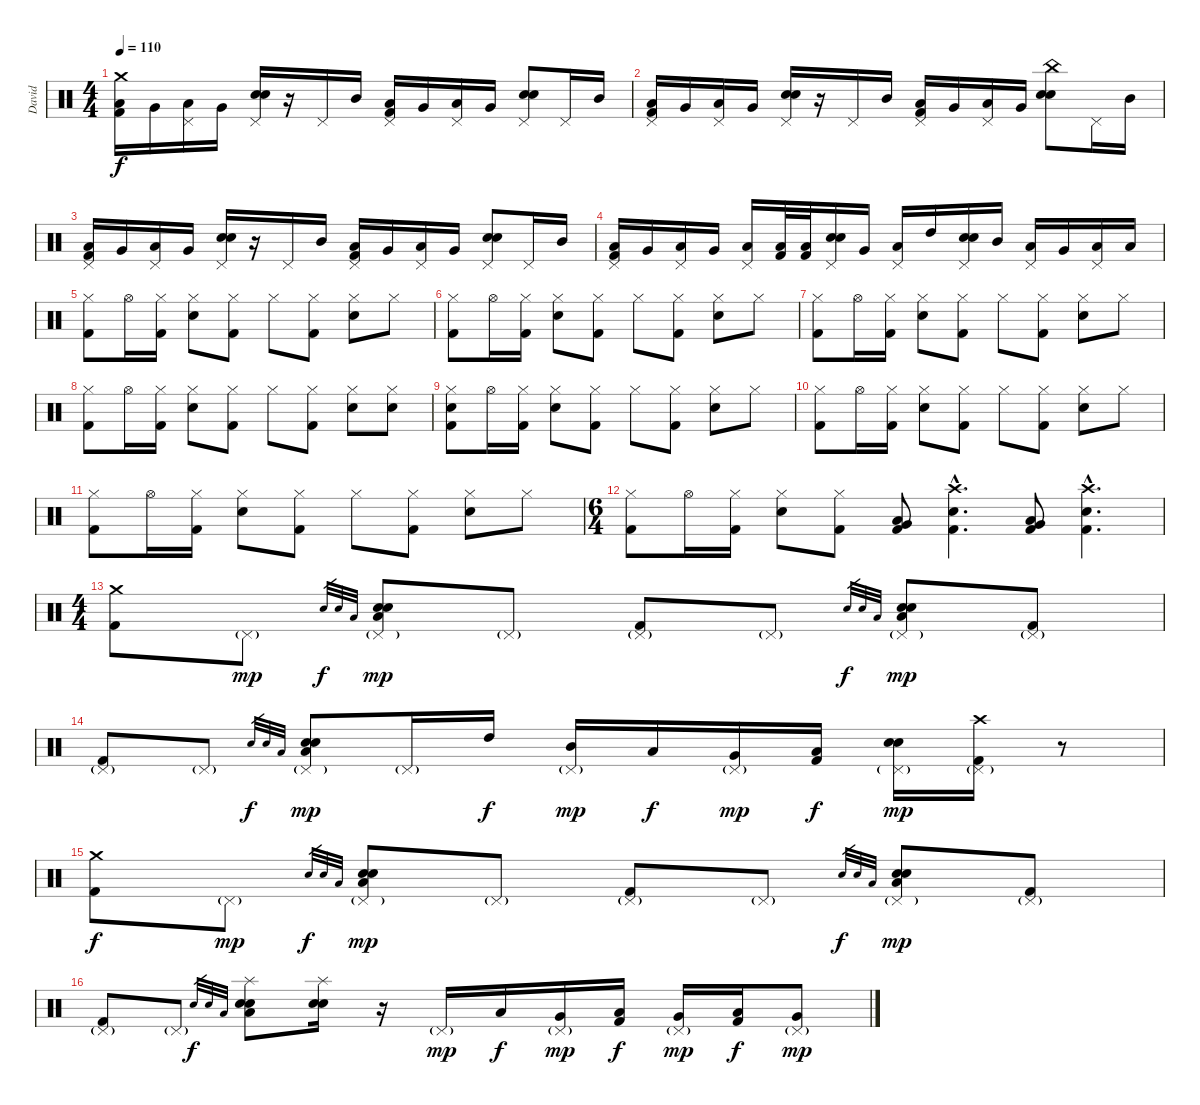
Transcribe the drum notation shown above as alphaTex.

\track ("David" "David") {instrument percussion}
\staff {score}
\articulation defaults
\ts (4 4)
\tempo 110
\clef neutral
\ks c
("Crash medium (hit)" "Low Tom (hit)" "Kick (hit) 2").16{dy f} "Very Low Tom (hit)".16 ("Pedal Hi-Hat (hit)" "Low Floor Tom (hit)").16 "Very Low Tom (hit)".16 ("Pedal Hi-Hat (hit)" "Snare (hit) 2" "Snare (hit) 2").16 r.16 "Pedal Hi-Hat (hit)".16 "Mid Tom (hit)".16 ("Pedal Hi-Hat (hit)" "Low Tom (hit)" "Kick (hit) 2").16 "Very Low Tom (hit)".16 ("Pedal Hi-Hat (hit)" "Low Floor Tom (hit)").16 "Very Low Tom (hit)".16 ("Pedal Hi-Hat (hit)" "Snare (hit) 2" "Snare (hit) 2").8 "Pedal Hi-Hat (hit)".16 "Mid Tom (hit)".16 |
("Pedal Hi-Hat (hit)" "Low Tom (hit)" "Kick (hit) 2").16 "Very Low Tom (hit)".16 ("Pedal Hi-Hat (hit)" "Low Floor Tom (hit)").16 "Very Low Tom (hit)".16 ("Pedal Hi-Hat (hit)" "Snare (hit) 2" "Snare (hit) 2").16 r.16 "Pedal Hi-Hat (hit)".16 "Mid Tom (hit)".16 ("Pedal Hi-Hat (hit)" "Low Tom (hit)" "Kick (hit) 2").16 "Very Low Tom (hit)".16 ("Pedal Hi-Hat (hit)" "Low Floor Tom (hit)").16 "Very Low Tom (hit)".16 ("China (hit)" "Snare (hit) 2" "Snare (hit) 2").8 "Pedal Hi-Hat (hit)".16 "Mid Tom (hit)".16 |
("Pedal Hi-Hat (hit)" "Low Tom (hit)" "Kick (hit) 2").16 "Very Low Tom (hit)".16 ("Pedal Hi-Hat (hit)" "Low Floor Tom (hit)").16 "Very Low Tom (hit)".16 ("Pedal Hi-Hat (hit)" "Snare (hit) 2" "Snare (hit) 2").16 r.16 "Pedal Hi-Hat (hit)".16 "Mid Tom (hit)".16 ("Pedal Hi-Hat (hit)" "Low Tom (hit)" "Kick (hit) 2").16 "Very Low Tom (hit)".16 ("Pedal Hi-Hat (hit)" "Low Floor Tom (hit)").16 "Very Low Tom (hit)".16 ("Pedal Hi-Hat (hit)" "Snare (hit) 2" "Snare (hit) 2").8 "Pedal Hi-Hat (hit)".16 "Mid Tom (hit)".16 |
("Pedal Hi-Hat (hit)" "Low Tom (hit)" "Kick (hit) 2").16 "Very Low Tom (hit)".16 ("Pedal Hi-Hat (hit)" "Low Floor Tom (hit)").16 "Very Low Tom (hit)".16 ("Pedal Hi-Hat (hit)" "Low Floor Tom (hit)").16 ("Low Tom (hit)" "Kick (hit) 2").32 ("Low Tom (hit)" "Kick (hit) 2").32 ("Pedal Hi-Hat (hit)" "Snare (hit) 2" "Snare (hit) 2").16 "Very Low Tom (hit)".16 ("Pedal Hi-Hat (hit)" "Low Tom (hit)").16 "High Tom (hit)".16 ("Pedal Hi-Hat (hit)" "Snare (hit) 2" "Snare (hit) 2").16 "Mid Tom (hit)".16 ("Pedal Hi-Hat (hit)" "Low Tom (hit)").16 "Very Low Tom (hit)".16 ("Pedal Hi-Hat (hit)" "Low Floor Tom (hit)").16 "Low Floor Tom (hit)".16 |
("Hi-Hat (closed)" "Kick (hit) 2").8 "Hi-Hat (open)".16 ("Hi-Hat (closed)" "Kick (hit) 2").16 ("Hi-Hat (closed)" "Snare (hit) 2").8 ("Hi-Hat (closed)" "Kick (hit) 2").8 "Hi-Hat (closed)".8 ("Hi-Hat (closed)" "Kick (hit) 2").8 ("Hi-Hat (closed)" "Snare (hit) 2").8 "Hi-Hat (closed)".8 |
("Hi-Hat (closed)" "Kick (hit) 2").8 "Hi-Hat (open)".16 ("Hi-Hat (closed)" "Kick (hit) 2").16 ("Hi-Hat (closed)" "Snare (hit) 2").8 ("Hi-Hat (closed)" "Kick (hit) 2").8 "Hi-Hat (closed)".8 ("Hi-Hat (closed)" "Kick (hit) 2").8 ("Hi-Hat (closed)" "Snare (hit) 2").8 "Hi-Hat (closed)".8 |
("Hi-Hat (closed)" "Kick (hit) 2").8 "Hi-Hat (open)".16 ("Hi-Hat (closed)" "Kick (hit) 2").16 ("Hi-Hat (closed)" "Snare (hit) 2").8 ("Hi-Hat (closed)" "Kick (hit) 2").8 "Hi-Hat (closed)".8 ("Hi-Hat (closed)" "Kick (hit) 2").8 ("Hi-Hat (closed)" "Snare (hit) 2").8 "Hi-Hat (closed)".8 |
("Hi-Hat (closed)" "Kick (hit) 2").8 "Hi-Hat (open)".16 ("Hi-Hat (closed)" "Kick (hit) 2").16 ("Hi-Hat (closed)" "Snare (hit) 2").8 ("Hi-Hat (closed)" "Kick (hit) 2").8 "Hi-Hat (closed)".8 ("Hi-Hat (closed)" "Kick (hit) 2").8 ("Hi-Hat (closed)" "Snare (hit) 2").8 ("Hi-Hat (closed)" "Snare (hit) 2").8 |
("Hi-Hat (closed)" "Snare (hit) 2" "Kick (hit) 2").8 "Hi-Hat (open)".16 ("Hi-Hat (closed)" "Kick (hit) 2").16 ("Hi-Hat (closed)" "Snare (hit) 2").8 ("Hi-Hat (closed)" "Kick (hit) 2").8 "Hi-Hat (closed)".8 ("Hi-Hat (closed)" "Kick (hit) 2").8 ("Hi-Hat (closed)" "Snare (hit) 2").8 "Hi-Hat (closed)".8 |
("Hi-Hat (closed)" "Kick (hit) 2").8 "Hi-Hat (open)".16 ("Hi-Hat (closed)" "Kick (hit) 2").16 ("Hi-Hat (closed)" "Snare (hit) 2").8 ("Hi-Hat (closed)" "Kick (hit) 2").8 "Hi-Hat (closed)".8 ("Hi-Hat (closed)" "Kick (hit) 2").8 ("Hi-Hat (closed)" "Snare (hit) 2").8 "Hi-Hat (closed)".8 |
("Hi-Hat (closed)" "Kick (hit) 2").8 "Hi-Hat (open)".16 ("Hi-Hat (closed)" "Kick (hit) 2").16 ("Hi-Hat (closed)" "Snare (hit) 2").8 ("Hi-Hat (closed)" "Kick (hit) 2").8 "Hi-Hat (closed)".8 ("Hi-Hat (closed)" "Kick (hit) 2").8 ("Hi-Hat (closed)" "Snare (hit) 2").8 "Hi-Hat (closed)".8 |
\ts (6 4)
("Hi-Hat (closed)" "Kick (hit) 2").8 "Hi-Hat (open)".16 ("Hi-Hat (closed)" "Kick (hit) 2").16 ("Hi-Hat (closed)" "Snare (hit) 2").8 ("Hi-Hat (closed)" "Kick (hit) 2").8 ("Low Tom (hit)" "Very Low Tom (hit)" "Kick (hit) 2").8 ("Crash high (hit)"{hac} "Snare (hit) 2"{hac} "Kick (hit) 2"{hac}).4{d} ("Low Tom (hit)" "Very Low Tom (hit)" "Kick (hit) 2").8 ("Crash high (hit)"{hac} "Snare (hit) 2"{hac} "Kick (hit) 2"{hac}).4{d} |
\ts (4 4)
("Crash medium (hit)" "Kick (hit) 2").8 "Pedal Hi-Hat (hit)"{g}.8{dy mp} "Snare (hit) 2".32{gr dy f} "Snare (hit) 2".32{gr} "Low Floor Tom (hit)".32{gr} ("Pedal Hi-Hat (hit)"{g} "Snare (hit) 2" "Snare (hit) 2" "Low Floor Tom (hit)").8{dy mp} "Pedal Hi-Hat (hit)"{g}.8 ("Pedal Hi-Hat (hit)"{g} "Kick (hit) 2").8 "Pedal Hi-Hat (hit)"{g}.8 "Snare (hit) 2".32{gr dy f} "Snare (hit) 2".32{gr} "Low Floor Tom (hit)".32{gr} ("Pedal Hi-Hat (hit)"{g} "Snare (hit) 2" "Snare (hit) 2" "Low Floor Tom (hit)").8{dy mp} ("Pedal Hi-Hat (hit)"{g} "Kick (hit) 2").8 |
("Pedal Hi-Hat (hit)"{g} "Kick (hit) 2").8 "Pedal Hi-Hat (hit)"{g}.8 "Snare (hit) 2".32{gr dy f} "Snare (hit) 2".32{gr} "Low Floor Tom (hit)".32{gr} ("Pedal Hi-Hat (hit)"{g} "Snare (hit) 2" "Snare (hit) 2" "Low Floor Tom (hit)").8{dy mp} "Pedal Hi-Hat (hit)"{g}.16 "High Tom (hit)".16{dy f} ("Pedal Hi-Hat (hit)"{g} "Mid Tom (hit)").16{dy mp} "Low Tom (hit)".16{dy f} ("Pedal Hi-Hat (hit)"{g} "Very Low Tom (hit)").16{dy mp} ("Low Floor Tom (hit)" "Kick (hit) 2").16{dy f} ("Pedal Hi-Hat (hit)"{g} "Snare (hit) 2" "Snare (hit) 2").16{dy mp} ("Crash high (hit)" "Pedal Hi-Hat (hit)"{g} "Kick (hit) 2").16 r.8 |
("Crash medium (hit)" "Kick (hit) 2").8{dy f} "Pedal Hi-Hat (hit)"{g}.8{dy mp} "Snare (hit) 2".32{gr dy f} "Snare (hit) 2".32{gr} "Low Floor Tom (hit)".32{gr} ("Pedal Hi-Hat (hit)"{g} "Snare (hit) 2" "Snare (hit) 2" "Low Floor Tom (hit)").8{dy mp} "Pedal Hi-Hat (hit)"{g}.8 ("Pedal Hi-Hat (hit)"{g} "Kick (hit) 2").8 "Pedal Hi-Hat (hit)"{g}.8 "Snare (hit) 2".32{gr dy f} "Snare (hit) 2".32{gr} "Low Floor Tom (hit)".32{gr} ("Pedal Hi-Hat (hit)"{g} "Snare (hit) 2" "Snare (hit) 2" "Low Floor Tom (hit)").8{dy mp} ("Pedal Hi-Hat (hit)"{g} "Kick (hit) 2").8 |
("Pedal Hi-Hat (hit)"{g} "Kick (hit) 2").8 "Pedal Hi-Hat (hit)"{g}.8 "Snare (hit) 2".32{gr dy f} "Snare (hit) 2".32{gr} "Low Floor Tom (hit)".32{gr} ("Splash (hit)" "Snare (hit) 2" "Snare (hit) 2" "Low Floor Tom (hit)").8 ("Splash (hit)" "Snare (hit) 2" "Snare (hit) 2").16 r.16 "Pedal Hi-Hat (hit)"{g}.16{dy mp} "Low Tom (hit)".16{dy f} ("Pedal Hi-Hat (hit)"{g} "Very Low Tom (hit)").16{dy mp} ("Low Floor Tom (hit)" "Kick (hit) 2").16{dy f} ("Pedal Hi-Hat (hit)"{g} "Very Low Tom (hit)").16{dy mp} ("Low Floor Tom (hit)" "Kick (hit) 2").16{dy f} ("Pedal Hi-Hat (hit)"{g} "Very Low Tom (hit)").8{dy mp}
